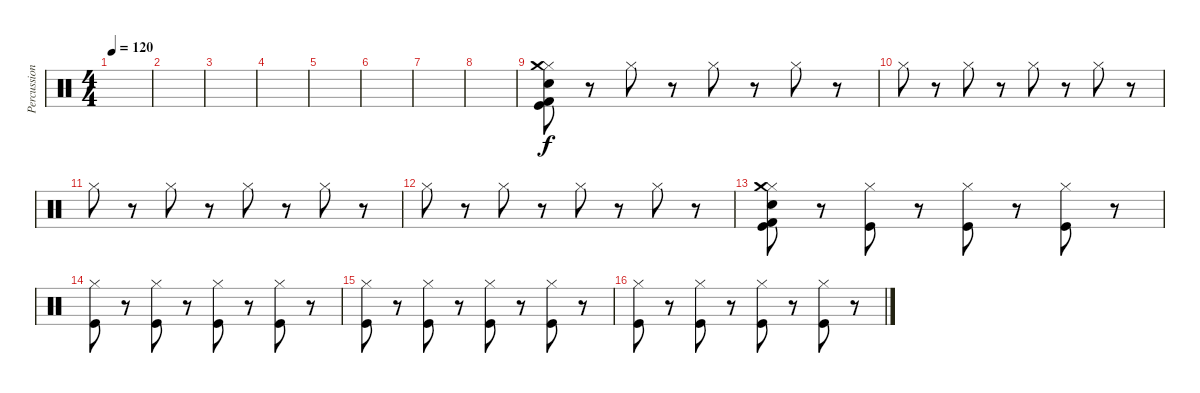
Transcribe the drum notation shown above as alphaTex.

\track ("Percussion" "Percussion") {instrument percussion}
\staff {score}
\articulation defaults
\ts (4 4)
\tempo 120
\clef neutral
\ks c
|
|
|
|
|
|
|
|
("Hi-Hat (closed)" "Kick (hit)" "Kick (hit) 2" "Snare (hit) 2" "Crash medium (hit)").8 r.8 "Hi-Hat (closed)".8 r.8 "Hi-Hat (closed)".8 r.8 "Hi-Hat (closed)".8 r.8 |
"Hi-Hat (closed)".8 r.8 "Hi-Hat (closed)".8 r.8 "Hi-Hat (closed)".8 r.8 "Hi-Hat (closed)".8 r.8 |
"Hi-Hat (closed)".8 r.8 "Hi-Hat (closed)".8 r.8 "Hi-Hat (closed)".8 r.8 "Hi-Hat (closed)".8 r.8 |
"Hi-Hat (closed)".8 r.8 "Hi-Hat (closed)".8 r.8 "Hi-Hat (closed)".8 r.8 "Hi-Hat (closed)".8 r.8 |
("Hi-Hat (closed)" "Kick (hit)" "Kick (hit) 2" "Snare (hit) 2" "Crash medium (hit)").8 r.8 ("Hi-Hat (closed)" "Kick (hit)").8 r.8 ("Hi-Hat (closed)" "Kick (hit)").8 r.8 ("Hi-Hat (closed)" "Kick (hit)").8 r.8 |
("Hi-Hat (closed)" "Kick (hit)").8 r.8 ("Hi-Hat (closed)" "Kick (hit)").8 r.8 ("Hi-Hat (closed)" "Kick (hit)").8 r.8 ("Hi-Hat (closed)" "Kick (hit)").8 r.8 |
("Hi-Hat (closed)" "Kick (hit)").8 r.8 ("Hi-Hat (closed)" "Kick (hit)").8 r.8 ("Hi-Hat (closed)" "Kick (hit)").8 r.8 ("Hi-Hat (closed)" "Kick (hit)").8 r.8 |
("Hi-Hat (closed)" "Kick (hit)").8 r.8 ("Hi-Hat (closed)" "Kick (hit)").8 r.8 ("Hi-Hat (closed)" "Kick (hit)").8 r.8 ("Hi-Hat (closed)" "Kick (hit)").8 r.8
